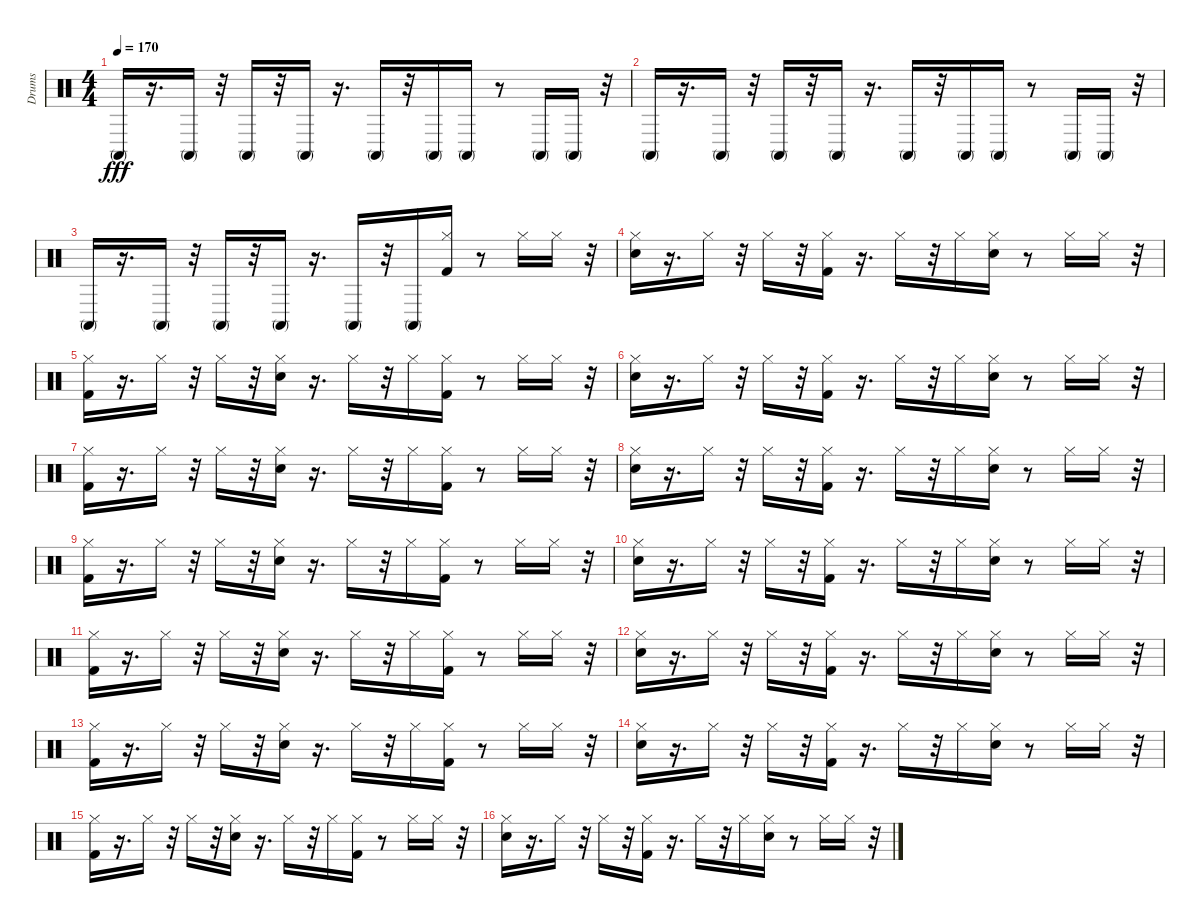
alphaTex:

\track ("Drums" "Drums") {instrument percussion}
\staff {score}
\articulation defaults
\ts (4 4)
\tempo 170
\clef neutral
\ks c "Conga high (mute)".16{dy fff}
r.16{d} "Conga high (mute)".16 r.32 "Conga high (mute)".16 r.32 "Conga high (mute)".16 r.16{d} "Conga high (mute)".16 r.32 "Conga high (mute)".16 "Conga high (mute)".16 r.8 "Conga high (mute)".16 "Conga high (mute)".16 r.32 |
"Conga high (mute)".16 r.16{d} "Conga high (mute)".16 r.32 "Conga high (mute)".16 r.32 "Conga high (mute)".16 r.16{d} "Conga high (mute)".16 r.32 "Conga high (mute)".16 "Conga high (mute)".16 r.8 "Conga high (mute)".16 "Conga high (mute)".16 r.32 |
"Conga high (mute)".16 r.16{d} "Conga high (mute)".16 r.32 "Conga high (mute)".16 r.32 "Conga high (mute)".16 r.16{d} "Conga high (mute)".16 r.32 "Conga high (mute)".16 ("Kick (hit) 2" "Hi-Hat (closed)").16 r.8 "Hi-Hat (closed)".16 "Hi-Hat (closed)".16 r.32 |
("Snare (hit) 2" "Hi-Hat (closed)").16 r.16{d} "Hi-Hat (closed)".16 r.32 "Hi-Hat (closed)".16 r.32 ("Kick (hit) 2" "Hi-Hat (closed)").16 r.16{d} "Hi-Hat (closed)".16 r.32 "Hi-Hat (closed)".16 ("Snare (hit) 2" "Hi-Hat (closed)").16 r.8 "Hi-Hat (closed)".16 "Hi-Hat (closed)".16 r.32 |
("Kick (hit) 2" "Hi-Hat (closed)").16 r.16{d} "Hi-Hat (closed)".16 r.32 "Hi-Hat (closed)".16 r.32 ("Snare (hit) 2" "Hi-Hat (closed)").16 r.16{d} "Hi-Hat (closed)".16 r.32 "Hi-Hat (closed)".16 ("Kick (hit) 2" "Hi-Hat (closed)").16 r.8 "Hi-Hat (closed)".16 "Hi-Hat (closed)".16 r.32 |
("Snare (hit) 2" "Hi-Hat (closed)").16 r.16{d} "Hi-Hat (closed)".16 r.32 "Hi-Hat (closed)".16 r.32 ("Kick (hit) 2" "Hi-Hat (closed)").16 r.16{d} "Hi-Hat (closed)".16 r.32 "Hi-Hat (closed)".16 ("Snare (hit) 2" "Hi-Hat (closed)").16 r.8 "Hi-Hat (closed)".16 "Hi-Hat (closed)".16 r.32 |
("Kick (hit) 2" "Hi-Hat (closed)").16 r.16{d} "Hi-Hat (closed)".16 r.32 "Hi-Hat (closed)".16 r.32 ("Snare (hit) 2" "Hi-Hat (closed)").16 r.16{d} "Hi-Hat (closed)".16 r.32 "Hi-Hat (closed)".16 ("Kick (hit) 2" "Hi-Hat (closed)").16 r.8 "Hi-Hat (closed)".16 "Hi-Hat (closed)".16 r.32 |
("Snare (hit) 2" "Hi-Hat (closed)").16 r.16{d} "Hi-Hat (closed)".16 r.32 "Hi-Hat (closed)".16 r.32 ("Kick (hit) 2" "Hi-Hat (closed)").16 r.16{d} "Hi-Hat (closed)".16 r.32 "Hi-Hat (closed)".16 ("Snare (hit) 2" "Hi-Hat (closed)").16 r.8 "Hi-Hat (closed)".16 "Hi-Hat (closed)".16 r.32 |
("Kick (hit) 2" "Hi-Hat (closed)").16 r.16{d} "Hi-Hat (closed)".16 r.32 "Hi-Hat (closed)".16 r.32 ("Snare (hit) 2" "Hi-Hat (closed)").16 r.16{d} "Hi-Hat (closed)".16 r.32 "Hi-Hat (closed)".16 ("Kick (hit) 2" "Hi-Hat (closed)").16 r.8 "Hi-Hat (closed)".16 "Hi-Hat (closed)".16 r.32 |
("Snare (hit) 2" "Hi-Hat (closed)").16 r.16{d} "Hi-Hat (closed)".16 r.32 "Hi-Hat (closed)".16 r.32 ("Kick (hit) 2" "Hi-Hat (closed)").16 r.16{d} "Hi-Hat (closed)".16 r.32 "Hi-Hat (closed)".16 ("Snare (hit) 2" "Hi-Hat (closed)").16 r.8 "Hi-Hat (closed)".16 "Hi-Hat (closed)".16 r.32 |
("Kick (hit) 2" "Hi-Hat (closed)").16 r.16{d} "Hi-Hat (closed)".16 r.32 "Hi-Hat (closed)".16 r.32 ("Snare (hit) 2" "Hi-Hat (closed)").16 r.16{d} "Hi-Hat (closed)".16 r.32 "Hi-Hat (closed)".16 ("Kick (hit) 2" "Hi-Hat (closed)").16 r.8 "Hi-Hat (closed)".16 "Hi-Hat (closed)".16 r.32 |
("Snare (hit) 2" "Hi-Hat (closed)").16 r.16{d} "Hi-Hat (closed)".16 r.32 "Hi-Hat (closed)".16 r.32 ("Kick (hit) 2" "Hi-Hat (closed)").16 r.16{d} "Hi-Hat (closed)".16 r.32 "Hi-Hat (closed)".16 ("Snare (hit) 2" "Hi-Hat (closed)").16 r.8 "Hi-Hat (closed)".16 "Hi-Hat (closed)".16 r.32 |
("Kick (hit) 2" "Hi-Hat (closed)").16 r.16{d} "Hi-Hat (closed)".16 r.32 "Hi-Hat (closed)".16 r.32 ("Snare (hit) 2" "Hi-Hat (closed)").16 r.16{d} "Hi-Hat (closed)".16 r.32 "Hi-Hat (closed)".16 ("Kick (hit) 2" "Hi-Hat (closed)").16 r.8 "Hi-Hat (closed)".16 "Hi-Hat (closed)".16 r.32 |
("Snare (hit) 2" "Hi-Hat (closed)").16 r.16{d} "Hi-Hat (closed)".16 r.32 "Hi-Hat (closed)".16 r.32 ("Kick (hit) 2" "Hi-Hat (closed)").16 r.16{d} "Hi-Hat (closed)".16 r.32 "Hi-Hat (closed)".16 ("Snare (hit) 2" "Hi-Hat (closed)").16 r.8 "Hi-Hat (closed)".16 "Hi-Hat (closed)".16 r.32 |
("Kick (hit) 2" "Hi-Hat (closed)").16 r.16{d} "Hi-Hat (closed)".16 r.32 "Hi-Hat (closed)".16 r.32 ("Snare (hit) 2" "Hi-Hat (closed)").16 r.16{d} "Hi-Hat (closed)".16 r.32 "Hi-Hat (closed)".16 ("Kick (hit) 2" "Hi-Hat (closed)").16 r.8 "Hi-Hat (closed)".16 "Hi-Hat (closed)".16 r.32 |
("Snare (hit) 2" "Hi-Hat (closed)").16 r.16{d} "Hi-Hat (closed)".16 r.32 "Hi-Hat (closed)".16 r.32 ("Kick (hit) 2" "Hi-Hat (closed)").16 r.16{d} "Hi-Hat (closed)".16 r.32 "Hi-Hat (closed)".16 ("Snare (hit) 2" "Hi-Hat (closed)").16 r.8 "Hi-Hat (closed)".16 "Hi-Hat (closed)".16 r.32
